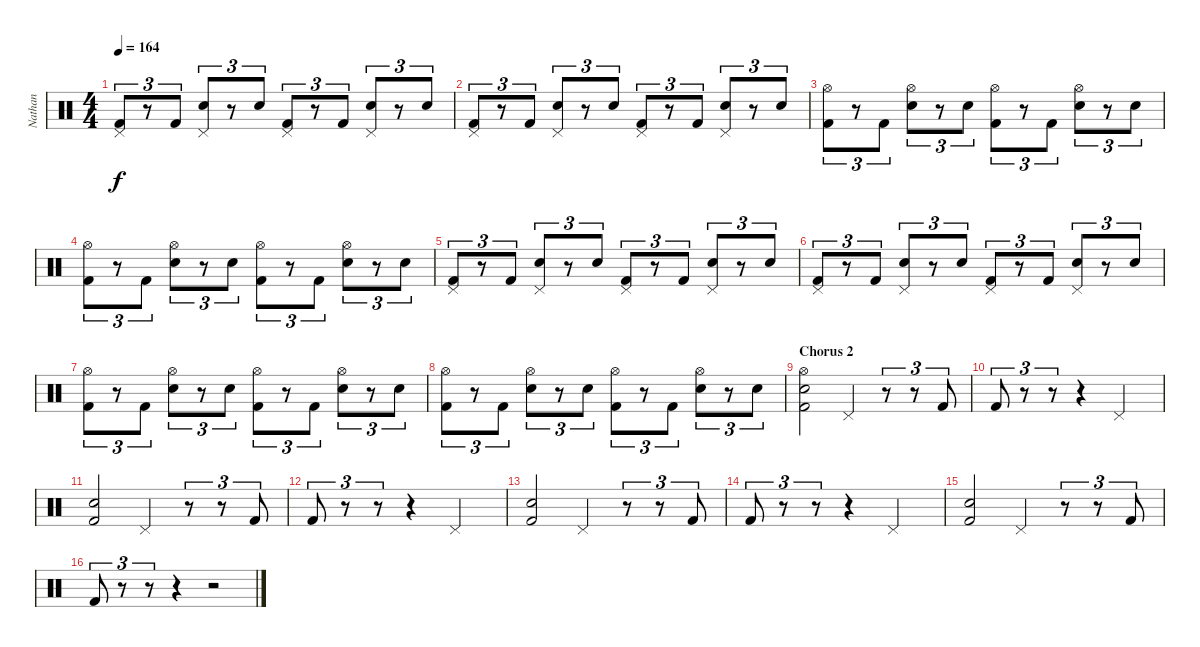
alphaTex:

\track ("Nathan" "Nathan") {instrument percussion}
\staff {score}
\articulation defaults
\ts (4 4)
\tempo 164
\clef neutral
\ks c
("Pedal Hi-Hat (hit)" "Kick (hit) 2").8{tu (3 2) dy f} r.8{tu (3 2)} "Kick (hit) 2".8{tu (3 2)} ("Pedal Hi-Hat (hit)" "Snare (hit) 2").8{tu (3 2)} r.8{tu (3 2)} "Snare (hit) 2".8{tu (3 2)} ("Pedal Hi-Hat (hit)" "Kick (hit) 2").8{tu (3 2)} r.8{tu (3 2)} "Kick (hit) 2".8{tu (3 2)} ("Pedal Hi-Hat (hit)" "Snare (hit) 2").8{tu (3 2)} r.8{tu (3 2)} "Snare (hit) 2".8{tu (3 2)} |
("Pedal Hi-Hat (hit)" "Kick (hit) 2").8{tu (3 2)} r.8{tu (3 2)} "Kick (hit) 2".8{tu (3 2)} ("Pedal Hi-Hat (hit)" "Snare (hit) 2").8{tu (3 2)} r.8{tu (3 2)} "Snare (hit) 2".8{tu (3 2)} ("Pedal Hi-Hat (hit)" "Kick (hit) 2").8{tu (3 2)} r.8{tu (3 2)} "Kick (hit) 2".8{tu (3 2)} ("Pedal Hi-Hat (hit)" "Snare (hit) 2").8{tu (3 2)} r.8{tu (3 2)} "Snare (hit) 2".8{tu (3 2)} |
("Hi-Hat (open)" "Kick (hit) 2").8{tu (3 2)} r.8{tu (3 2)} "Kick (hit) 2".8{tu (3 2)} ("Hi-Hat (open)" "Snare (hit) 2").8{tu (3 2)} r.8{tu (3 2)} "Snare (hit) 2".8{tu (3 2)} ("Hi-Hat (open)" "Kick (hit) 2").8{tu (3 2)} r.8{tu (3 2)} "Kick (hit) 2".8{tu (3 2)} ("Hi-Hat (open)" "Snare (hit) 2").8{tu (3 2)} r.8{tu (3 2)} "Snare (hit) 2".8{tu (3 2)} |
("Hi-Hat (open)" "Kick (hit) 2").8{tu (3 2)} r.8{tu (3 2)} "Kick (hit) 2".8{tu (3 2)} ("Hi-Hat (open)" "Snare (hit) 2").8{tu (3 2)} r.8{tu (3 2)} "Snare (hit) 2".8{tu (3 2)} ("Hi-Hat (open)" "Kick (hit) 2").8{tu (3 2)} r.8{tu (3 2)} "Kick (hit) 2".8{tu (3 2)} ("Hi-Hat (open)" "Snare (hit) 2").8{tu (3 2)} r.8{tu (3 2)} "Snare (hit) 2".8{tu (3 2)} |
("Pedal Hi-Hat (hit)" "Kick (hit) 2").8{tu (3 2)} r.8{tu (3 2)} "Kick (hit) 2".8{tu (3 2)} ("Pedal Hi-Hat (hit)" "Snare (hit) 2").8{tu (3 2)} r.8{tu (3 2)} "Snare (hit) 2".8{tu (3 2)} ("Pedal Hi-Hat (hit)" "Kick (hit) 2").8{tu (3 2)} r.8{tu (3 2)} "Kick (hit) 2".8{tu (3 2)} ("Pedal Hi-Hat (hit)" "Snare (hit) 2").8{tu (3 2)} r.8{tu (3 2)} "Snare (hit) 2".8{tu (3 2)} |
("Pedal Hi-Hat (hit)" "Kick (hit) 2").8{tu (3 2)} r.8{tu (3 2)} "Kick (hit) 2".8{tu (3 2)} ("Pedal Hi-Hat (hit)" "Snare (hit) 2").8{tu (3 2)} r.8{tu (3 2)} "Snare (hit) 2".8{tu (3 2)} ("Pedal Hi-Hat (hit)" "Kick (hit) 2").8{tu (3 2)} r.8{tu (3 2)} "Kick (hit) 2".8{tu (3 2)} ("Pedal Hi-Hat (hit)" "Snare (hit) 2").8{tu (3 2)} r.8{tu (3 2)} "Snare (hit) 2".8{tu (3 2)} |
("Hi-Hat (open)" "Kick (hit) 2").8{tu (3 2)} r.8{tu (3 2)} "Kick (hit) 2".8{tu (3 2)} ("Hi-Hat (open)" "Snare (hit) 2").8{tu (3 2)} r.8{tu (3 2)} "Snare (hit) 2".8{tu (3 2)} ("Hi-Hat (open)" "Kick (hit) 2").8{tu (3 2)} r.8{tu (3 2)} "Kick (hit) 2".8{tu (3 2)} ("Hi-Hat (open)" "Snare (hit) 2").8{tu (3 2)} r.8{tu (3 2)} "Snare (hit) 2".8{tu (3 2)} |
("Hi-Hat (open)" "Kick (hit) 2").8{tu (3 2)} r.8{tu (3 2)} "Kick (hit) 2".8{tu (3 2)} ("Hi-Hat (open)" "Snare (hit) 2").8{tu (3 2)} r.8{tu (3 2)} "Snare (hit) 2".8{tu (3 2)} ("Hi-Hat (open)" "Kick (hit) 2").8{tu (3 2)} r.8{tu (3 2)} "Kick (hit) 2".8{tu (3 2)} ("Hi-Hat (open)" "Snare (hit) 2").8{tu (3 2)} r.8{tu (3 2)} "Snare (hit) 2".8{tu (3 2)} |
\section ("" "Chorus 2")
("Hi-Hat (open)" "Snare (hit) 2" "Kick (hit) 2").2 "Pedal Hi-Hat (hit)".4 r.8{tu (3 2)} r.8{tu (3 2)} "Kick (hit) 2".8{tu (3 2)} |
"Kick (hit) 2".8{tu (3 2)} r.8{tu (3 2)} r.8{tu (3 2)} r.4 "Pedal Hi-Hat (hit)".2 |
("Snare (hit) 2" "Kick (hit) 2").2 "Pedal Hi-Hat (hit)".4 r.8{tu (3 2)} r.8{tu (3 2)} "Kick (hit) 2".8{tu (3 2)} |
"Kick (hit) 2".8{tu (3 2)} r.8{tu (3 2)} r.8{tu (3 2)} r.4 "Pedal Hi-Hat (hit)".2 |
("Snare (hit) 2" "Kick (hit) 2").2 "Pedal Hi-Hat (hit)".4 r.8{tu (3 2)} r.8{tu (3 2)} "Kick (hit) 2".8{tu (3 2)} |
"Kick (hit) 2".8{tu (3 2)} r.8{tu (3 2)} r.8{tu (3 2)} r.4 "Pedal Hi-Hat (hit)".2 |
("Snare (hit) 2" "Kick (hit) 2").2 "Pedal Hi-Hat (hit)".4 r.8{tu (3 2)} r.8{tu (3 2)} "Kick (hit) 2".8{tu (3 2)} |
"Kick (hit) 2".8{tu (3 2)} r.8{tu (3 2)} r.8{tu (3 2)} r.4 r.2
